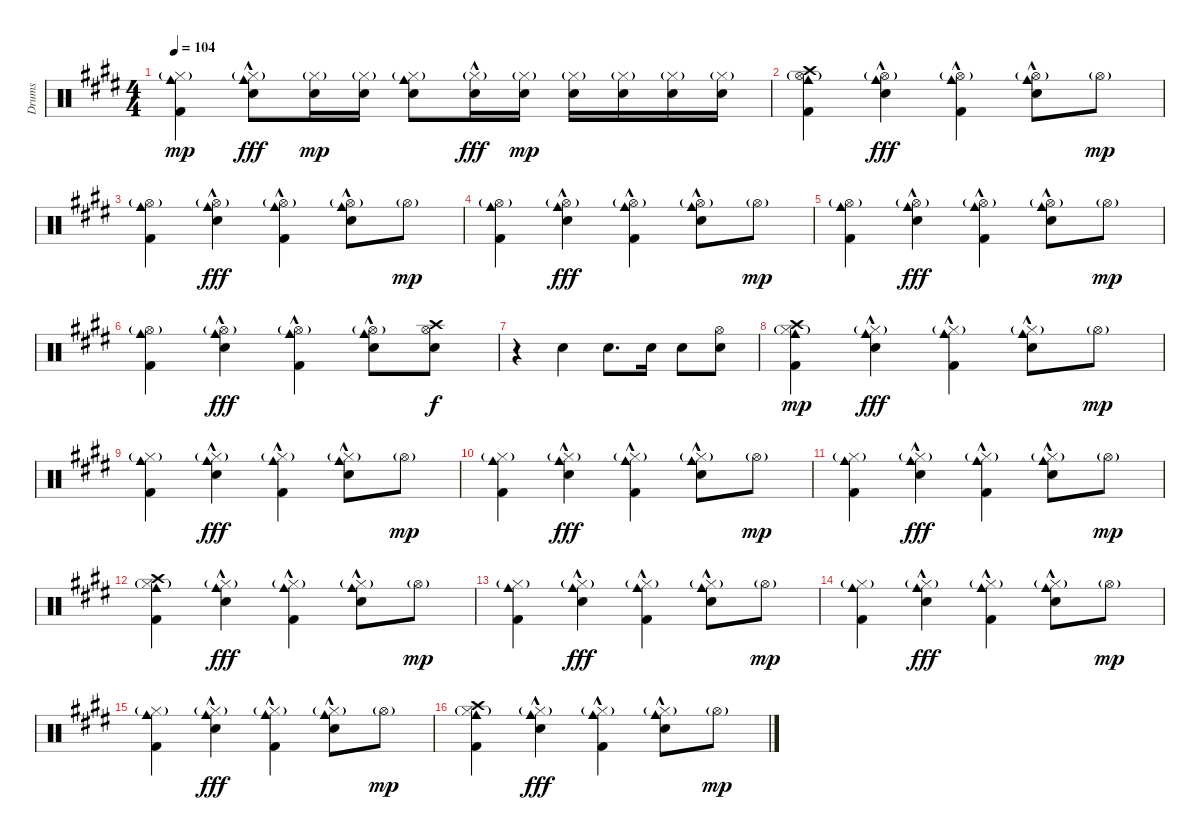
\track ("Drums" "Drums") {instrument percussion}
\staff {score}
\articulation defaults
\ts (4 4)
\tempo 104
\clef neutral
\ks e
("Cowbell medium (hit)" "Hi-Hat (closed)"{g} "Kick (hit) 2").4{dy mp} ("Cowbell medium (hit)" "Hi-Hat (closed)"{g} "Electric Snare (hit)"{hac}).8{dy fff} ("Hi-Hat (closed)"{g} "Electric Snare (hit)").16{dy mp} ("Hi-Hat (closed)"{g} "Electric Snare (hit)").16 ("Cowbell medium (hit)" "Hi-Hat (closed)"{g} "Electric Snare (hit)").8 ("Hi-Hat (closed)"{g} "Electric Snare (hit)"{hac}).16{dy fff} ("Hi-Hat (closed)"{g} "Electric Snare (hit)").16{dy mp} ("Hi-Hat (closed)"{g} "Electric Snare (hit)").16 ("Hi-Hat (closed)"{g} "Electric Snare (hit)").16 ("Hi-Hat (closed)"{g} "Electric Snare (hit)").16 ("Hi-Hat (closed)"{g} "Electric Snare (hit)").16 |
("Cowbell medium (hit)" "Hi-Hat (open)"{g} "Crash high (hit)" "Kick (hit) 2").4 ("Cowbell medium (hit)" "Hi-Hat (open)"{g} "Electric Snare (hit)"{hac}).4{dy fff} ("Cowbell medium (hit)" "Hi-Hat (open)"{g} "Kick (hit) 2"{hac}).4 ("Cowbell medium (hit)" "Hi-Hat (open)"{g} "Electric Snare (hit)"{hac}).8 "Hi-Hat (open)"{g}.8{dy mp} |
("Cowbell medium (hit)" "Hi-Hat (open)"{g} "Kick (hit) 2").4 ("Cowbell medium (hit)" "Hi-Hat (open)"{g} "Electric Snare (hit)"{hac}).4{dy fff} ("Cowbell medium (hit)" "Hi-Hat (open)"{g} "Kick (hit) 2"{hac}).4 ("Cowbell medium (hit)" "Hi-Hat (open)"{g} "Electric Snare (hit)"{hac}).8 "Hi-Hat (open)"{g}.8{dy mp} |
("Cowbell medium (hit)" "Hi-Hat (open)"{g} "Kick (hit) 2").4 ("Cowbell medium (hit)" "Hi-Hat (open)"{g} "Electric Snare (hit)"{hac}).4{dy fff} ("Cowbell medium (hit)" "Hi-Hat (open)"{g} "Kick (hit) 2"{hac}).4 ("Cowbell medium (hit)" "Hi-Hat (open)"{g} "Electric Snare (hit)"{hac}).8 "Hi-Hat (open)"{g}.8{dy mp} |
("Cowbell medium (hit)" "Hi-Hat (open)"{g} "Kick (hit) 2").4 ("Cowbell medium (hit)" "Hi-Hat (open)"{g} "Electric Snare (hit)"{hac}).4{dy fff} ("Cowbell medium (hit)" "Hi-Hat (open)"{g} "Kick (hit) 2"{hac}).4 ("Cowbell medium (hit)" "Hi-Hat (open)"{g} "Electric Snare (hit)"{hac}).8 "Hi-Hat (open)"{g}.8{dy mp} |
("Cowbell medium (hit)" "Hi-Hat (open)"{g} "Kick (hit) 2").4 ("Cowbell medium (hit)" "Hi-Hat (open)"{g} "Electric Snare (hit)"{hac}).4{dy fff} ("Cowbell medium (hit)" "Hi-Hat (open)"{g} "Kick (hit) 2"{hac}).4 ("Cowbell medium (hit)" "Hi-Hat (open)"{g} "Electric Snare (hit)"{hac}).8 ("Electric Snare (hit)" "Crash high (hit)" "Hi-Hat (open)").8{dy f} |
r.4 "Electric Snare (hit)".4 "Electric Snare (hit)".8{d} "Electric Snare (hit)".16 "Electric Snare (hit)".8 ("Hi-Hat (open)" "Electric Snare (hit)").8 |
("Cowbell medium (hit)" "Hi-Hat (closed)"{g} "Crash high (hit)" "Kick (hit) 2").4{dy mp} ("Cowbell medium (hit)" "Hi-Hat (closed)"{g} "Electric Snare (hit)"{hac}).4{dy fff} ("Cowbell medium (hit)" "Hi-Hat (closed)"{g} "Kick (hit) 2"{hac}).4 ("Cowbell medium (hit)" "Hi-Hat (closed)"{g} "Electric Snare (hit)"{hac}).8 "Hi-Hat (open)"{g}.8{dy mp} |
("Cowbell medium (hit)" "Hi-Hat (closed)"{g} "Kick (hit) 2").4 ("Cowbell medium (hit)" "Hi-Hat (closed)"{g} "Electric Snare (hit)"{hac}).4{dy fff} ("Cowbell medium (hit)" "Hi-Hat (closed)"{g} "Kick (hit) 2"{hac}).4 ("Cowbell medium (hit)" "Hi-Hat (closed)"{g} "Electric Snare (hit)"{hac}).8 "Hi-Hat (open)"{g}.8{dy mp} |
("Cowbell medium (hit)" "Hi-Hat (closed)"{g} "Kick (hit) 2").4 ("Cowbell medium (hit)" "Hi-Hat (closed)"{g} "Electric Snare (hit)"{hac}).4{dy fff} ("Cowbell medium (hit)" "Hi-Hat (closed)"{g} "Kick (hit) 2"{hac}).4 ("Cowbell medium (hit)" "Hi-Hat (closed)"{g} "Electric Snare (hit)"{hac}).8 "Hi-Hat (open)"{g}.8{dy mp} |
("Cowbell medium (hit)" "Hi-Hat (closed)"{g} "Kick (hit) 2").4 ("Cowbell medium (hit)" "Hi-Hat (closed)"{g} "Electric Snare (hit)"{hac}).4{dy fff} ("Cowbell medium (hit)" "Hi-Hat (closed)"{g} "Kick (hit) 2"{hac}).4 ("Cowbell medium (hit)" "Hi-Hat (closed)"{g} "Electric Snare (hit)"{hac}).8 "Hi-Hat (open)"{g}.8{dy mp} |
("Cowbell medium (hit)" "Hi-Hat (closed)"{g} "Crash high (hit)" "Kick (hit) 2").4 ("Cowbell medium (hit)" "Hi-Hat (closed)"{g} "Electric Snare (hit)"{hac}).4{dy fff} ("Cowbell medium (hit)" "Hi-Hat (closed)"{g} "Kick (hit) 2"{hac}).4 ("Cowbell medium (hit)" "Hi-Hat (closed)"{g} "Electric Snare (hit)"{hac}).8 "Hi-Hat (open)"{g}.8{dy mp} |
("Cowbell medium (hit)" "Hi-Hat (closed)"{g} "Kick (hit) 2").4 ("Cowbell medium (hit)" "Hi-Hat (closed)"{g} "Electric Snare (hit)"{hac}).4{dy fff} ("Cowbell medium (hit)" "Hi-Hat (closed)"{g} "Kick (hit) 2"{hac}).4 ("Cowbell medium (hit)" "Hi-Hat (closed)"{g} "Electric Snare (hit)"{hac}).8 "Hi-Hat (open)"{g}.8{dy mp} |
("Cowbell medium (hit)" "Hi-Hat (closed)"{g} "Kick (hit) 2").4 ("Cowbell medium (hit)" "Hi-Hat (closed)"{g} "Electric Snare (hit)"{hac}).4{dy fff} ("Cowbell medium (hit)" "Hi-Hat (closed)"{g} "Kick (hit) 2"{hac}).4 ("Cowbell medium (hit)" "Hi-Hat (closed)"{g} "Electric Snare (hit)"{hac}).8 "Hi-Hat (open)"{g}.8{dy mp} |
("Cowbell medium (hit)" "Hi-Hat (closed)"{g} "Kick (hit) 2").4 ("Cowbell medium (hit)" "Hi-Hat (closed)"{g} "Electric Snare (hit)"{hac}).4{dy fff} ("Cowbell medium (hit)" "Hi-Hat (closed)"{g} "Kick (hit) 2"{hac}).4 ("Cowbell medium (hit)" "Hi-Hat (closed)"{g} "Electric Snare (hit)"{hac}).8 "Hi-Hat (open)"{g}.8{dy mp} |
("Cowbell medium (hit)" "Hi-Hat (closed)"{g} "Crash high (hit)" "Kick (hit) 2").4 ("Cowbell medium (hit)" "Hi-Hat (closed)"{g} "Electric Snare (hit)"{hac}).4{dy fff} ("Cowbell medium (hit)" "Hi-Hat (closed)"{g} "Kick (hit) 2"{hac}).4 ("Cowbell medium (hit)" "Hi-Hat (closed)"{g} "Electric Snare (hit)"{hac}).8 "Hi-Hat (open)"{g}.8{dy mp}
